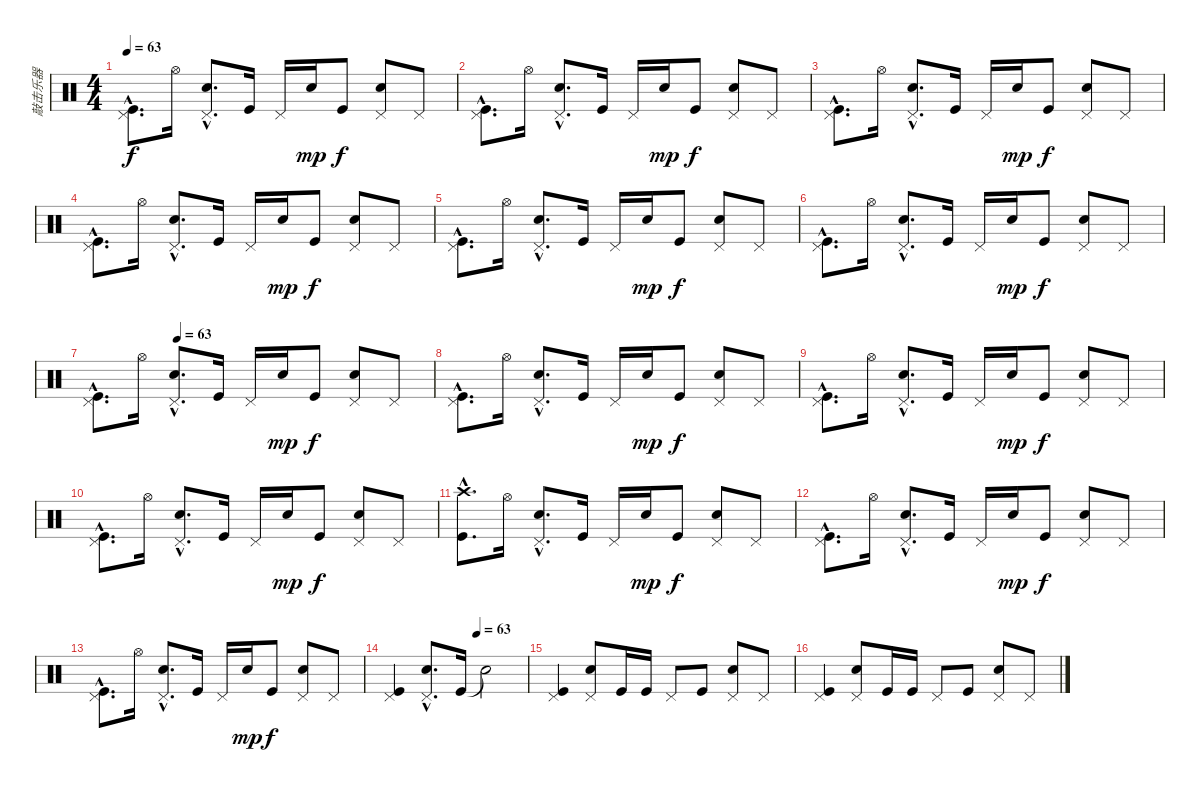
\track ("敲击乐器" "敲击乐器") {instrument percussion}
\staff {score}
\articulation defaults
\ts (4 4)
\tempo 63
\clef neutral
\ks c
("Pedal Hi-Hat (hit)"{hac} "Kick (hit)"{hac}).8{d dy f} "Hi-Hat (open)".16 ("Pedal Hi-Hat (hit)"{hac} "Snare (hit) 2"{hac}).8{d} "Kick (hit)".16 "Pedal Hi-Hat (hit)".16 "Electric Snare (hit)".16{dy mp} "Kick (hit)".8{dy f} ("Pedal Hi-Hat (hit)" "Snare (hit) 2").8 "Pedal Hi-Hat (hit)".8 |
("Pedal Hi-Hat (hit)"{hac} "Kick (hit)"{hac}).8{d} "Hi-Hat (open)".16 ("Pedal Hi-Hat (hit)"{hac} "Snare (hit) 2"{hac}).8{d} "Kick (hit)".16 "Pedal Hi-Hat (hit)".16 "Electric Snare (hit)".16{dy mp} "Kick (hit)".8{dy f} ("Pedal Hi-Hat (hit)" "Snare (hit) 2").8 "Pedal Hi-Hat (hit)".8 |
("Pedal Hi-Hat (hit)"{hac} "Kick (hit)"{hac}).8{d} "Hi-Hat (open)".16 ("Pedal Hi-Hat (hit)"{hac} "Snare (hit) 2"{hac}).8{d} "Kick (hit)".16 "Pedal Hi-Hat (hit)".16 "Electric Snare (hit)".16{dy mp} "Kick (hit)".8{dy f} ("Pedal Hi-Hat (hit)" "Snare (hit) 2").8 "Pedal Hi-Hat (hit)".8 |
("Pedal Hi-Hat (hit)"{hac} "Kick (hit)"{hac}).8{d} "Hi-Hat (open)".16 ("Pedal Hi-Hat (hit)"{hac} "Snare (hit) 2"{hac}).8{d} "Kick (hit)".16 "Pedal Hi-Hat (hit)".16 "Electric Snare (hit)".16{dy mp} "Kick (hit)".8{dy f} ("Pedal Hi-Hat (hit)" "Snare (hit) 2").8 "Pedal Hi-Hat (hit)".8 |
("Pedal Hi-Hat (hit)"{hac} "Kick (hit)"{hac}).8{d} "Hi-Hat (open)".16 ("Pedal Hi-Hat (hit)"{hac} "Snare (hit) 2"{hac}).8{d} "Kick (hit)".16 "Pedal Hi-Hat (hit)".16 "Electric Snare (hit)".16{dy mp} "Kick (hit)".8{dy f} ("Pedal Hi-Hat (hit)" "Snare (hit) 2").8 "Pedal Hi-Hat (hit)".8 |
("Pedal Hi-Hat (hit)"{hac} "Kick (hit)"{hac}).8{d} "Hi-Hat (open)".16 ("Pedal Hi-Hat (hit)"{hac} "Snare (hit) 2"{hac}).8{d} "Kick (hit)".16 "Pedal Hi-Hat (hit)".16 "Electric Snare (hit)".16{dy mp} "Kick (hit)".8{dy f} ("Pedal Hi-Hat (hit)" "Snare (hit) 2").8 "Pedal Hi-Hat (hit)".8 |
\tempo (63 0.25)
("Pedal Hi-Hat (hit)"{hac} "Kick (hit)"{hac}).8{d} "Hi-Hat (open)".16 ("Pedal Hi-Hat (hit)"{hac} "Snare (hit) 2"{hac}).8{d} "Kick (hit)".16 "Pedal Hi-Hat (hit)".16 "Electric Snare (hit)".16{dy mp} "Kick (hit)".8{dy f} ("Pedal Hi-Hat (hit)" "Snare (hit) 2").8 "Pedal Hi-Hat (hit)".8 |
("Pedal Hi-Hat (hit)"{hac} "Kick (hit)"{hac}).8{d} "Hi-Hat (open)".16 ("Pedal Hi-Hat (hit)"{hac} "Snare (hit) 2"{hac}).8{d} "Kick (hit)".16 "Pedal Hi-Hat (hit)".16 "Electric Snare (hit)".16{dy mp} "Kick (hit)".8{dy f} ("Pedal Hi-Hat (hit)" "Snare (hit) 2").8 "Pedal Hi-Hat (hit)".8 |
("Pedal Hi-Hat (hit)"{hac} "Kick (hit)"{hac}).8{d} "Hi-Hat (open)".16 ("Pedal Hi-Hat (hit)"{hac} "Snare (hit) 2"{hac}).8{d} "Kick (hit)".16 "Pedal Hi-Hat (hit)".16 "Electric Snare (hit)".16{dy mp} "Kick (hit)".8{dy f} ("Pedal Hi-Hat (hit)" "Snare (hit) 2").8 "Pedal Hi-Hat (hit)".8 |
("Pedal Hi-Hat (hit)"{hac} "Kick (hit)"{hac}).8{d} "Hi-Hat (open)".16 ("Pedal Hi-Hat (hit)"{hac} "Snare (hit) 2"{hac}).8{d} "Kick (hit)".16 "Pedal Hi-Hat (hit)".16 "Electric Snare (hit)".16{dy mp} "Kick (hit)".8{dy f} ("Pedal Hi-Hat (hit)" "Snare (hit) 2").8 "Pedal Hi-Hat (hit)".8 |
("Crash high (hit)"{hac} "Kick (hit)"{hac}).8{d} "Hi-Hat (open)".16 ("Pedal Hi-Hat (hit)"{hac} "Snare (hit) 2"{hac}).8{d} "Kick (hit)".16 "Pedal Hi-Hat (hit)".16 "Electric Snare (hit)".16{dy mp} "Kick (hit)".8{dy f} ("Pedal Hi-Hat (hit)" "Snare (hit) 2").8 "Pedal Hi-Hat (hit)".8 |
("Pedal Hi-Hat (hit)"{hac} "Kick (hit)"{hac}).8{d} "Hi-Hat (open)".16 ("Pedal Hi-Hat (hit)"{hac} "Snare (hit) 2"{hac}).8{d} "Kick (hit)".16 "Pedal Hi-Hat (hit)".16 "Electric Snare (hit)".16{dy mp} "Kick (hit)".8{dy f} ("Pedal Hi-Hat (hit)" "Snare (hit) 2").8 "Pedal Hi-Hat (hit)".8 |
("Pedal Hi-Hat (hit)"{hac} "Kick (hit)"{hac}).8{d} "Hi-Hat (open)".16 ("Pedal Hi-Hat (hit)"{hac} "Snare (hit) 2"{hac}).8{d} "Kick (hit)".16 "Pedal Hi-Hat (hit)".16 "Electric Snare (hit)".16{dy mp} "Kick (hit)".8{dy f} ("Pedal Hi-Hat (hit)" "Snare (hit) 2").8 "Pedal Hi-Hat (hit)".8 |
\tempo (63 0.625)
("Pedal Hi-Hat (hit)" "Kick (hit)").4 ("Pedal Hi-Hat (hit)"{hac} "Snare (hit) 2"{hac}).8{d} "Kick (hit)".16 "Snare (hit)"{t}.2 |
("Pedal Hi-Hat (hit)" "Kick (hit)").4 ("Pedal Hi-Hat (hit)" "Snare (hit) 2").8 "Kick (hit)".16 "Kick (hit)".16 "Pedal Hi-Hat (hit)".8 "Kick (hit)".8 ("Pedal Hi-Hat (hit)" "Snare (hit) 2").8 "Pedal Hi-Hat (hit)".8 |
("Pedal Hi-Hat (hit)" "Kick (hit)").4 ("Pedal Hi-Hat (hit)" "Snare (hit) 2").8 "Kick (hit)".16 "Kick (hit)".16 "Pedal Hi-Hat (hit)".8 "Kick (hit)".8 ("Pedal Hi-Hat (hit)" "Snare (hit) 2").8 "Pedal Hi-Hat (hit)".8
